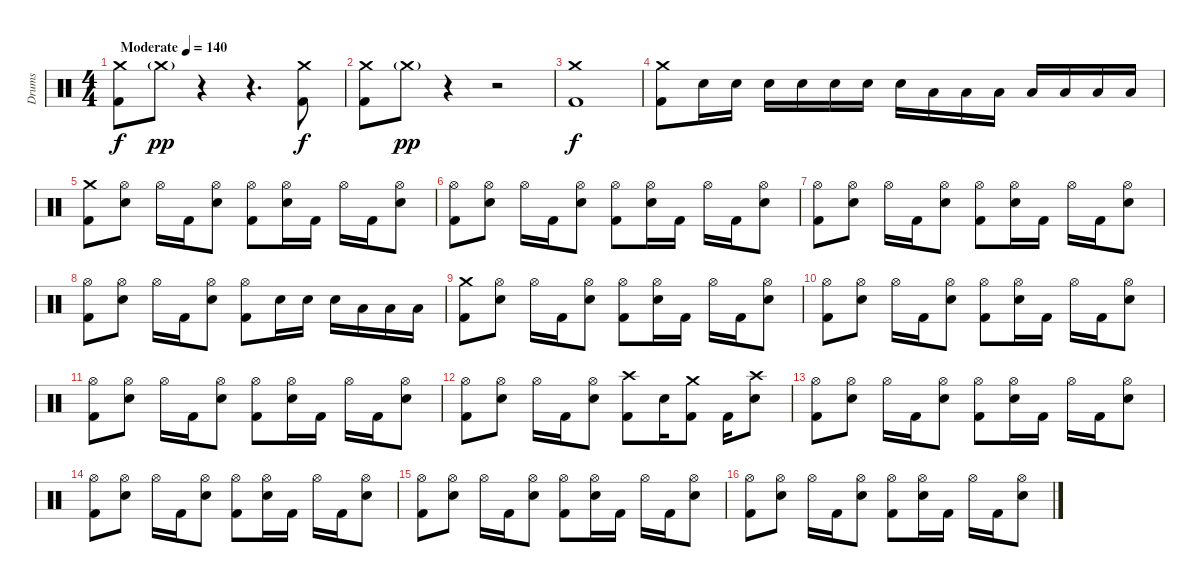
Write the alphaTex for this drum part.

\track ("Drums" "Drums") {instrument percussion}
\staff {score}
\articulation defaults
\ts (4 4)
\tempo (140 "Moderate")
\clef neutral
\ks c
("Crash medium (hit)" "Kick (hit) 2").8{dy f} "Crash medium (hit)"{g}.8{dy pp} r.4 r.4{d} ("Crash medium (hit)" "Kick (hit) 2").8{dy f} |
("Crash medium (hit)" "Kick (hit) 2").8 "Crash medium (hit)"{g}.8{dy pp} r.4 r.2 |
("Crash medium (hit)" "Kick (hit) 2").1{dy f} |
("Crash medium (hit)" "Kick (hit) 2").8 "Electric Snare (hit)".16 "Electric Snare (hit)".16 "Electric Snare (hit)".16 "Electric Snare (hit)".16 "Electric Snare (hit)".16 "Electric Snare (hit)".16 "Electric Snare (hit)".16 "Low Tom (hit)".16 "Low Tom (hit)".16 "Low Tom (hit)".16 "Low Floor Tom (hit)".16 "Low Floor Tom (hit)".16 "Low Floor Tom (hit)".16 "Low Floor Tom (hit)".16 |
("Crash medium (hit)" "Kick (hit) 2").8 ("Hi-Hat (open)" "Electric Snare (hit)").8 "Hi-Hat (open)".16 "Kick (hit) 2".16 ("Hi-Hat (open)" "Electric Snare (hit)").8 ("Hi-Hat (open)" "Kick (hit) 2").8 ("Hi-Hat (open)" "Electric Snare (hit)").16 "Kick (hit) 2".16 "Hi-Hat (open)".16 "Kick (hit) 2".16 ("Hi-Hat (open)" "Electric Snare (hit)").8 |
("Hi-Hat (open)" "Kick (hit) 2").8 ("Hi-Hat (open)" "Electric Snare (hit)").8 "Hi-Hat (open)".16 "Kick (hit) 2".16 ("Hi-Hat (open)" "Electric Snare (hit)").8 ("Hi-Hat (open)" "Kick (hit) 2").8 ("Hi-Hat (open)" "Electric Snare (hit)").16 "Kick (hit) 2".16 "Hi-Hat (open)".16 "Kick (hit) 2".16 ("Hi-Hat (open)" "Electric Snare (hit)").8 |
("Hi-Hat (open)" "Kick (hit) 2").8 ("Hi-Hat (open)" "Electric Snare (hit)").8 "Hi-Hat (open)".16 "Kick (hit) 2".16 ("Hi-Hat (open)" "Electric Snare (hit)").8 ("Hi-Hat (open)" "Kick (hit) 2").8 ("Hi-Hat (open)" "Electric Snare (hit)").16 "Kick (hit) 2".16 "Hi-Hat (open)".16 "Kick (hit) 2".16 ("Hi-Hat (open)" "Electric Snare (hit)").8 |
("Hi-Hat (open)" "Kick (hit) 2").8 ("Hi-Hat (open)" "Electric Snare (hit)").8 "Hi-Hat (open)".16 "Kick (hit) 2".16 ("Hi-Hat (open)" "Electric Snare (hit)").8 ("Hi-Hat (open)" "Kick (hit) 2").8 "Electric Snare (hit)".16 "Electric Snare (hit)".16 "Electric Snare (hit)".16 "Low Tom (hit)".16 "Low Floor Tom (hit)".16 "Low Floor Tom (hit)".16 |
("Crash medium (hit)" "Kick (hit) 2").8 ("Hi-Hat (open)" "Electric Snare (hit)").8 "Hi-Hat (open)".16 "Kick (hit) 2".16 ("Hi-Hat (open)" "Electric Snare (hit)").8 ("Hi-Hat (open)" "Kick (hit) 2").8 ("Hi-Hat (open)" "Electric Snare (hit)").16 "Kick (hit) 2".16 "Hi-Hat (open)".16 "Kick (hit) 2".16 ("Hi-Hat (open)" "Electric Snare (hit)").8 |
("Hi-Hat (open)" "Kick (hit) 2").8 ("Hi-Hat (open)" "Electric Snare (hit)").8 "Hi-Hat (open)".16 "Kick (hit) 2".16 ("Hi-Hat (open)" "Electric Snare (hit)").8 ("Hi-Hat (open)" "Kick (hit) 2").8 ("Hi-Hat (open)" "Electric Snare (hit)").16 "Kick (hit) 2".16 "Hi-Hat (open)".16 "Kick (hit) 2".16 ("Hi-Hat (open)" "Electric Snare (hit)").8 |
("Hi-Hat (open)" "Kick (hit) 2").8 ("Hi-Hat (open)" "Electric Snare (hit)").8 "Hi-Hat (open)".16 "Kick (hit) 2".16 ("Hi-Hat (open)" "Electric Snare (hit)").8 ("Hi-Hat (open)" "Kick (hit) 2").8 ("Hi-Hat (open)" "Electric Snare (hit)").16 "Kick (hit) 2".16 "Hi-Hat (open)".16 "Kick (hit) 2".16 ("Hi-Hat (open)" "Electric Snare (hit)").8 |
("Hi-Hat (open)" "Kick (hit) 2").8 ("Hi-Hat (open)" "Electric Snare (hit)").8 "Hi-Hat (open)".16 "Kick (hit) 2".16 ("Hi-Hat (open)" "Electric Snare (hit)").8 ("Crash high (hit)" "Kick (hit) 2").8 "Electric Snare (hit)".16 ("Crash medium (hit)" "Kick (hit) 2").8 "Kick (hit) 2".16 ("Crash high (hit)" "Electric Snare (hit)").8 |
("Hi-Hat (open)" "Kick (hit) 2").8 ("Hi-Hat (open)" "Electric Snare (hit)").8 "Hi-Hat (open)".16 "Kick (hit) 2".16 ("Hi-Hat (open)" "Electric Snare (hit)").8 ("Hi-Hat (open)" "Kick (hit) 2").8 ("Hi-Hat (open)" "Electric Snare (hit)").16 "Kick (hit) 2".16 "Hi-Hat (open)".16 "Kick (hit) 2".16 ("Hi-Hat (open)" "Electric Snare (hit)").8 |
("Hi-Hat (open)" "Kick (hit) 2").8 ("Hi-Hat (open)" "Electric Snare (hit)").8 "Hi-Hat (open)".16 "Kick (hit) 2".16 ("Hi-Hat (open)" "Electric Snare (hit)").8 ("Hi-Hat (open)" "Kick (hit) 2").8 ("Hi-Hat (open)" "Electric Snare (hit)").16 "Kick (hit) 2".16 "Hi-Hat (open)".16 "Kick (hit) 2".16 ("Hi-Hat (open)" "Electric Snare (hit)").8 |
("Hi-Hat (open)" "Kick (hit) 2").8 ("Hi-Hat (open)" "Electric Snare (hit)").8 "Hi-Hat (open)".16 "Kick (hit) 2".16 ("Hi-Hat (open)" "Electric Snare (hit)").8 ("Hi-Hat (open)" "Kick (hit) 2").8 ("Hi-Hat (open)" "Electric Snare (hit)").16 "Kick (hit) 2".16 "Hi-Hat (open)".16 "Kick (hit) 2".16 ("Hi-Hat (open)" "Electric Snare (hit)").8 |
("Hi-Hat (open)" "Kick (hit) 2").8 ("Hi-Hat (open)" "Electric Snare (hit)").8 "Hi-Hat (open)".16 "Kick (hit) 2".16 ("Hi-Hat (open)" "Electric Snare (hit)").8 ("Hi-Hat (open)" "Kick (hit) 2").8 ("Hi-Hat (open)" "Electric Snare (hit)").16 "Kick (hit) 2".16 "Hi-Hat (open)".16 "Kick (hit) 2".16 ("Hi-Hat (open)" "Electric Snare (hit)").8
